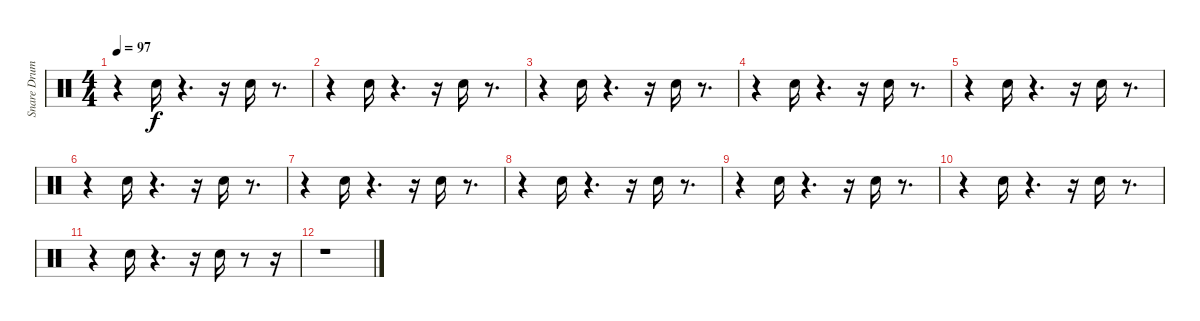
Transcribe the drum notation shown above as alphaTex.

\track ("Snare Drum" "Snare Drum") {instrument percussion}
\staff {score}
\articulation defaults
\ts (4 4)
\tempo 97
\clef neutral
\ks c
r.4{dy f} "Snare (hit) 2".16 r.4{d} r.16 "Snare (hit) 2".16 r.8{d} |
r.4 "Snare (hit) 2".16 r.4{d} r.16 "Snare (hit) 2".16 r.8{d} |
r.4 "Snare (hit) 2".16 r.4{d} r.16 "Snare (hit) 2".16 r.8{d} |
r.4 "Snare (hit) 2".16 r.4{d} r.16 "Snare (hit) 2".16 r.8{d} |
r.4 "Snare (hit) 2".16 r.4{d} r.16 "Snare (hit) 2".16 r.8{d} |
r.4 "Snare (hit) 2".16 r.4{d} r.16 "Snare (hit) 2".16 r.8{d} |
r.4 "Snare (hit) 2".16 r.4{d} r.16 "Snare (hit) 2".16 r.8{d} |
r.4 "Snare (hit) 2".16 r.4{d} r.16 "Snare (hit) 2".16 r.8{d} |
r.4 "Snare (hit) 2".16 r.4{d} r.16 "Snare (hit) 2".16 r.8{d} |
r.4 "Snare (hit) 2".16 r.4{d} r.16 "Snare (hit) 2".16 r.8{d} |
r.4 "Snare (hit) 2".16 r.4{d} r.16 "Snare (hit) 2".16 r.8 r.16 |
r.1
